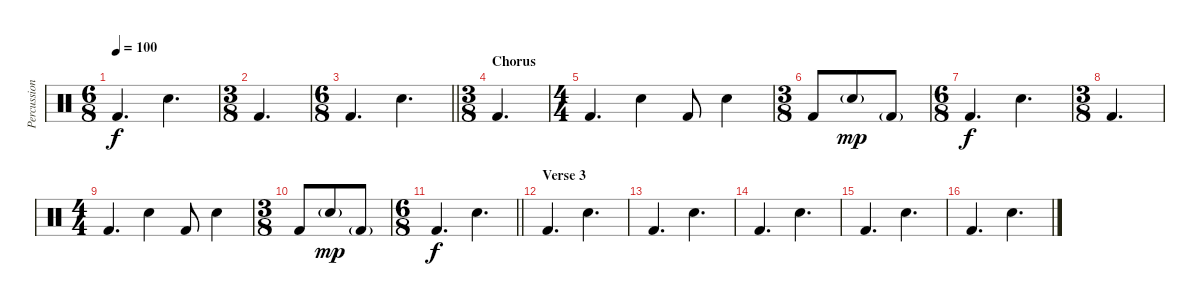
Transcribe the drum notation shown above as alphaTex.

\track ("Percussion" "Percussion") {instrument percussion}
\staff {score}
\articulation defaults
\ts (6 8)
\tempo 100
\clef neutral
\ks c "Kick (hit) 2".4{d dy f} "Snare (hit) 2".4{d}
|
\ts (3 8)
"Kick (hit) 2".4{d} |
\ts (6 8)
\barLineRight lightlight "Kick (hit) 2".4{d} "Snare (hit) 2".4{d}
|
\ts (3 8)
\section ("" "Chorus")
"Kick (hit) 2".4{d} |
\ts (4 4)
"Kick (hit) 2".4{d} "Snare (hit) 2".4 "Kick (hit) 2".8 "Snare (hit) 2".4 |
\ts (3 8)
"Kick (hit) 2".8 "Snare (hit) 2"{g}.8{dy mp} "Kick (hit) 2"{g}.8 |
\ts (6 8)
"Kick (hit) 2".4{d dy f} "Snare (hit) 2".4{d} |
\ts (3 8)
"Kick (hit) 2".4{d} |
\ts (4 4)
"Kick (hit) 2".4{d} "Snare (hit) 2".4 "Kick (hit) 2".8 "Snare (hit) 2".4 |
\ts (3 8)
"Kick (hit) 2".8 "Snare (hit) 2"{g}.8{dy mp} "Kick (hit) 2"{g}.8 |
\ts (6 8)
\barLineRight lightlight "Kick (hit) 2".4{d dy f} "Snare (hit) 2".4{d}
|
\section ("" "Verse 3")
"Kick (hit) 2".4{d} "Snare (hit) 2".4{d} |
"Kick (hit) 2".4{d} "Snare (hit) 2".4{d} |
"Kick (hit) 2".4{d} "Snare (hit) 2".4{d} |
"Kick (hit) 2".4{d} "Snare (hit) 2".4{d} |
"Kick (hit) 2".4{d} "Snare (hit) 2".4{d}
